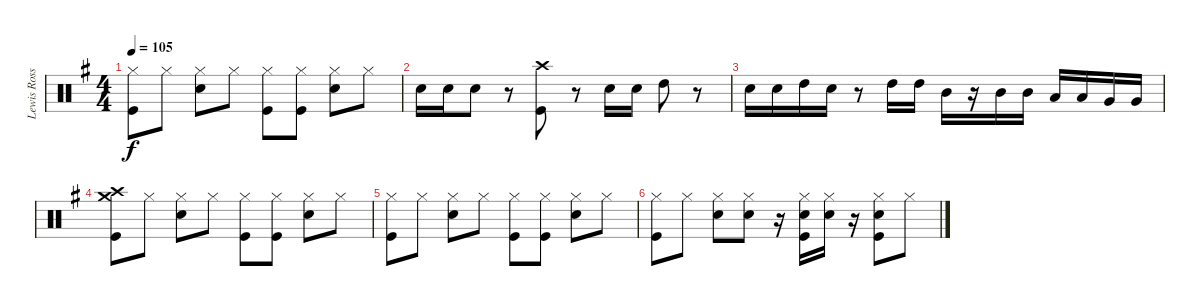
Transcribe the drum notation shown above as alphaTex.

\track ("Lewis Ross Drums" "Lewis Ross") {instrument percussion}
\staff {score}
\articulation defaults
\ts (4 4)
\tempo 105
\clef neutral
\ks g
("Hi-Hat (closed)" "Kick (hit)").8{dy f} "Hi-Hat (closed)".8 ("Hi-Hat (closed)" "Snare (hit) 2").8 "Hi-Hat (closed)".8 ("Hi-Hat (closed)" "Kick (hit)").8 ("Hi-Hat (closed)" "Kick (hit)").8 ("Hi-Hat (closed)" "Snare (hit) 2").8 "Hi-Hat (closed)".8 |
"Snare (hit) 2".16 "Snare (hit) 2".16 "Snare (hit) 2".8 r.8 ("Crash high (hit)" "Kick (hit)").8 r.8 "Snare (hit) 2".16 "Snare (hit) 2".16 "High Tom (hit)".8 r.8 |
"Snare (hit) 2".16 "Snare (hit) 2".16 "High Tom (hit)".16 "Snare (hit) 2".16 r.8 "High Tom (hit)".16 "High Tom (hit)".16 "Mid Tom (hit)".16 r.16 "Mid Tom (hit)".16 "Mid Tom (hit)".16 "Low Tom (hit)".16 "Low Tom (hit)".16 "Very Low Tom (hit)".16 "Very Low Tom (hit)".16 |
("Crash high (hit)" "Crash medium (hit)" "Kick (hit)").8{volume 0} "Hi-Hat (closed)".8 ("Hi-Hat (closed)" "Snare (hit) 2").8 "Hi-Hat (closed)".8 ("Hi-Hat (closed)" "Kick (hit)").8 ("Hi-Hat (closed)" "Kick (hit)").8 ("Hi-Hat (closed)" "Snare (hit) 2").8 "Hi-Hat (closed)".8 |
("Hi-Hat (closed)" "Kick (hit)").8 "Hi-Hat (closed)".8 ("Hi-Hat (closed)" "Snare (hit) 2").8 "Hi-Hat (closed)".8 ("Hi-Hat (closed)" "Kick (hit)").8 ("Hi-Hat (closed)" "Kick (hit)").8 ("Hi-Hat (closed)" "Snare (hit) 2").8 "Hi-Hat (closed)".8 |
("Hi-Hat (closed)" "Kick (hit)").8 "Hi-Hat (closed)".8 ("Hi-Hat (closed)" "Snare (hit) 2").8 ("Hi-Hat (closed)" "Snare (hit) 2").8 r.16 ("Hi-Hat (closed)" "Snare (hit) 2" "Kick (hit)").16 ("Hi-Hat (closed)" "Snare (hit) 2").16 r.16 ("Hi-Hat (closed)" "Snare (hit) 2" "Kick (hit)").8 "Hi-Hat (closed)".8
